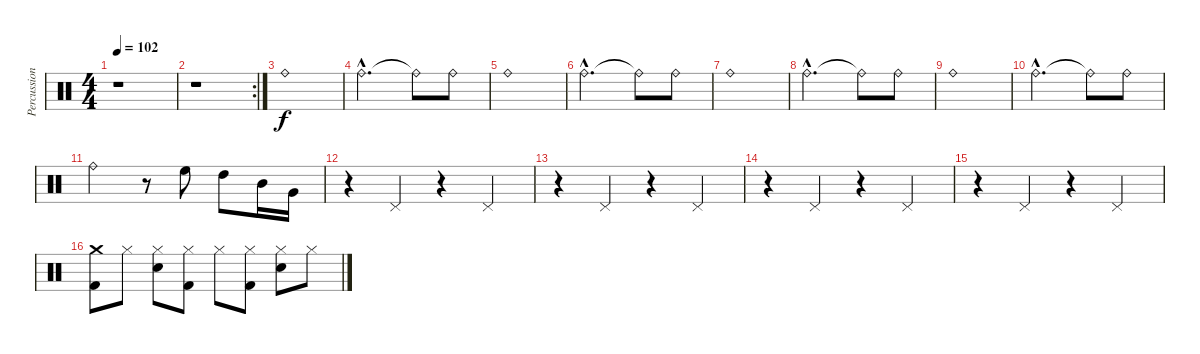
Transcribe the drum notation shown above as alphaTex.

\track ("Percussion" "Percussion") {instrument percussion}
\staff {score}
\articulation defaults
\ts (4 4)
\tempo 102
\clef neutral
\ks c
r.1{dy f} |
\rc 2
r.1 |
"Ride (bell)".1 |
"Ride (bell)"{hac}.2{d} "Ride (bell)"{t}.8 "Ride (bell)".8 |
"Ride (bell)".1 |
"Ride (bell)"{hac}.2{d} "Ride (bell)"{t}.8 "Ride (bell)".8 |
"Ride (bell)".1 |
"Ride (bell)"{hac}.2{d} "Ride (bell)"{t}.8 "Ride (bell)".8 |
"Ride (bell)".1 |
"Ride (bell)"{hac}.2{d} "Ride (bell)"{t}.8 "Ride (bell)".8 |
"Ride (bell)".2 r.8 "High Floor Tom (hit)".8 "High Tom (hit)".8 "Mid Tom (hit)".16 "Very Low Tom (hit)".16 |
r.4 "Pedal Hi-Hat (hit)".4 r.4 "Pedal Hi-Hat (hit)".4 |
r.4 "Pedal Hi-Hat (hit)".4 r.4 "Pedal Hi-Hat (hit)".4 |
r.4 "Pedal Hi-Hat (hit)".4 r.4 "Pedal Hi-Hat (hit)".4 |
r.4 "Pedal Hi-Hat (hit)".4 r.4 "Pedal Hi-Hat (hit)".4 |
("Crash medium (hit)" "Kick (hit) 2").8 "Hi-Hat (closed)".8 ("Hi-Hat (closed)" "Snare (hit) 2").8 ("Hi-Hat (closed)" "Kick (hit) 2").8 "Hi-Hat (closed)".8 ("Hi-Hat (closed)" "Kick (hit) 2").8 ("Hi-Hat (closed)" "Snare (hit) 2").8 "Hi-Hat (closed)".8
